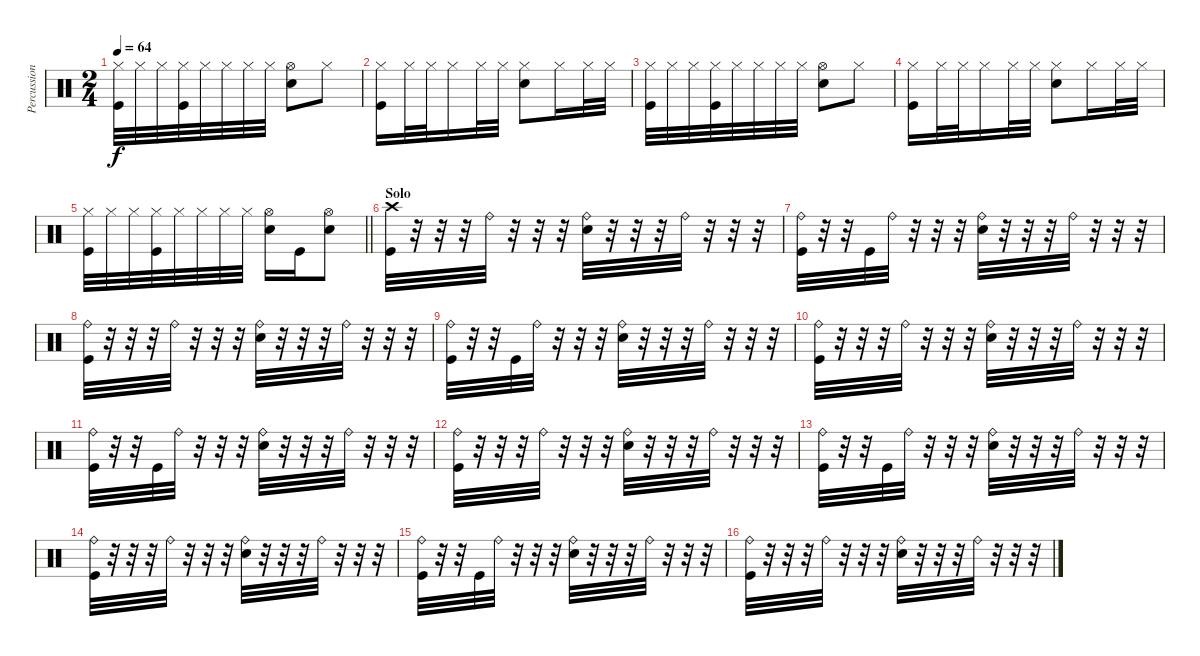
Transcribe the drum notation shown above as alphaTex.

\track ("Percussion" "Percussion") {instrument percussion}
\staff {score}
\articulation defaults
\ts (2 4)
\tempo 64
\clef neutral
\ks c
("Hi-Hat (closed)" "Kick (hit)").32{dy f} "Hi-Hat (closed)".32 "Hi-Hat (closed)".32 ("Hi-Hat (closed)" "Kick (hit)").32 "Hi-Hat (closed)".32 "Hi-Hat (closed)".32 "Hi-Hat (closed)".32 "Hi-Hat (closed)".32 ("Hi-Hat (open)" "Electric Snare (hit)").8 "Hi-Hat (closed)".8 |
("Hi-Hat (closed)" "Kick (hit)").16 "Hi-Hat (closed)".32 "Hi-Hat (closed)".32 "Hi-Hat (closed)".16 "Hi-Hat (closed)".32 "Hi-Hat (closed)".32 ("Hi-Hat (closed)" "Electric Snare (hit)").8 "Hi-Hat (closed)".16 "Hi-Hat (closed)".32 "Hi-Hat (closed)".32 |
("Hi-Hat (closed)" "Kick (hit)").32 "Hi-Hat (closed)".32 "Hi-Hat (closed)".32 ("Hi-Hat (closed)" "Kick (hit)").32 "Hi-Hat (closed)".32 "Hi-Hat (closed)".32 "Hi-Hat (closed)".32 "Hi-Hat (closed)".32 ("Hi-Hat (open)" "Electric Snare (hit)").8 "Hi-Hat (closed)".8 |
("Hi-Hat (closed)" "Kick (hit)").16 "Hi-Hat (closed)".32 "Hi-Hat (closed)".32 "Hi-Hat (closed)".16 "Hi-Hat (closed)".32 "Hi-Hat (closed)".32 ("Hi-Hat (closed)" "Electric Snare (hit)").8 "Hi-Hat (closed)".16 "Hi-Hat (closed)".32 "Hi-Hat (closed)".32 |
\barLineRight lightlight
("Hi-Hat (closed)" "Kick (hit)").32 "Hi-Hat (closed)".32 "Hi-Hat (closed)".32 ("Hi-Hat (closed)" "Kick (hit)").32 "Hi-Hat (closed)".32 "Hi-Hat (closed)".32 "Hi-Hat (closed)".32 "Hi-Hat (closed)".32 ("Hi-Hat (open)" "Electric Snare (hit)").16 "Kick (hit)".16 ("Hi-Hat (open)" "Electric Snare (hit)").8 |
\section ("" "Solo")
("Crash high (hit)" "Kick (hit)").32 r.32 r.32 r.32 "Ride (bell)".32 r.32 r.32 r.32 ("Ride (bell)" "Electric Snare (hit)").32 r.32 r.32 r.32 "Ride (bell)".32 r.32 r.32 r.32 |
("Ride (bell)" "Kick (hit)").32 r.32 r.32 "Kick (hit)".32 "Ride (bell)".32 r.32 r.32 r.32 ("Ride (bell)" "Electric Snare (hit)").32 r.32 r.32 r.32 "Ride (bell)".32 r.32 r.32 r.32 |
("Ride (bell)" "Kick (hit)").32 r.32 r.32 r.32 "Ride (bell)".32 r.32 r.32 r.32 ("Ride (bell)" "Electric Snare (hit)").32 r.32 r.32 r.32 "Ride (bell)".32 r.32 r.32 r.32 |
("Ride (bell)" "Kick (hit)").32 r.32 r.32 "Kick (hit)".32 "Ride (bell)".32 r.32 r.32 r.32 ("Ride (bell)" "Electric Snare (hit)").32 r.32 r.32 r.32 "Ride (bell)".32 r.32 r.32 r.32 |
("Ride (bell)" "Kick (hit)").32 r.32 r.32 r.32 "Ride (bell)".32 r.32 r.32 r.32 ("Ride (bell)" "Electric Snare (hit)").32 r.32 r.32 r.32 "Ride (bell)".32 r.32 r.32 r.32 |
("Ride (bell)" "Kick (hit)").32 r.32 r.32 "Kick (hit)".32 "Ride (bell)".32 r.32 r.32 r.32 ("Ride (bell)" "Electric Snare (hit)").32 r.32 r.32 r.32 "Ride (bell)".32 r.32 r.32 r.32 |
("Ride (bell)" "Kick (hit)").32 r.32 r.32 r.32 "Ride (bell)".32 r.32 r.32 r.32 ("Ride (bell)" "Electric Snare (hit)").32 r.32 r.32 r.32 "Ride (bell)".32 r.32 r.32 r.32 |
("Ride (bell)" "Kick (hit)").32 r.32 r.32 "Kick (hit)".32 "Ride (bell)".32 r.32 r.32 r.32 ("Ride (bell)" "Electric Snare (hit)").32 r.32 r.32 r.32 "Ride (bell)".32 r.32 r.32 r.32 |
("Ride (bell)" "Kick (hit)").32 r.32 r.32 r.32 "Ride (bell)".32 r.32 r.32 r.32 ("Ride (bell)" "Electric Snare (hit)").32 r.32 r.32 r.32 "Ride (bell)".32 r.32 r.32 r.32 |
("Ride (bell)" "Kick (hit)").32 r.32 r.32 "Kick (hit)".32 "Ride (bell)".32 r.32 r.32 r.32 ("Ride (bell)" "Electric Snare (hit)").32 r.32 r.32 r.32 "Ride (bell)".32 r.32 r.32 r.32 |
("Ride (bell)" "Kick (hit)").32 r.32 r.32 r.32 "Ride (bell)".32 r.32 r.32 r.32 ("Ride (bell)" "Electric Snare (hit)").32 r.32 r.32 r.32 "Ride (bell)".32 r.32 r.32 r.32
